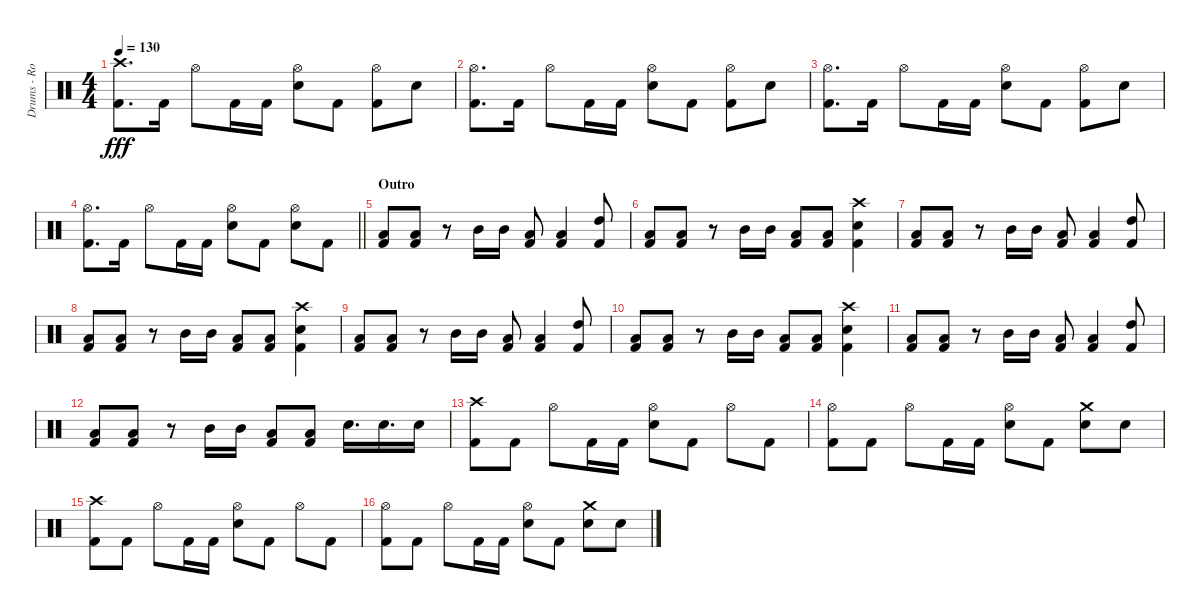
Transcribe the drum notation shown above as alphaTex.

\track ("Drums - Rob Bourdon" "Drums - Ro") {instrument percussion}
\staff {score}
\articulation defaults
\ts (4 4)
\tempo 130
\clef neutral
\ks c
("Crash high (hit)" "Kick (hit) 2").8{d dy fff} "Kick (hit) 2".16 "Hi-Hat (open)".8 "Kick (hit) 2".16 "Kick (hit) 2".16 ("Hi-Hat (open)" "Snare (hit) 2").8 "Kick (hit) 2".8 ("Hi-Hat (open)" "Kick (hit) 2").8 "Snare (hit) 2".8 |
("Hi-Hat (open)" "Kick (hit) 2").8{d} "Kick (hit) 2".16 "Hi-Hat (open)".8 "Kick (hit) 2".16 "Kick (hit) 2".16 ("Hi-Hat (open)" "Snare (hit) 2").8 "Kick (hit) 2".8 ("Hi-Hat (open)" "Kick (hit) 2").8 "Snare (hit) 2".8 |
("Hi-Hat (open)" "Kick (hit) 2").8{d} "Kick (hit) 2".16 "Hi-Hat (open)".8 "Kick (hit) 2".16 "Kick (hit) 2".16 ("Hi-Hat (open)" "Snare (hit) 2").8 "Kick (hit) 2".8 ("Hi-Hat (open)" "Kick (hit) 2").8 "Snare (hit) 2".8 |
\barLineRight lightlight
("Hi-Hat (open)" "Kick (hit) 2").8{d} "Kick (hit) 2".16 "Hi-Hat (open)".8 "Kick (hit) 2".16 "Kick (hit) 2".16 ("Hi-Hat (open)" "Snare (hit) 2").8 "Kick (hit) 2".8 ("Hi-Hat (open)" "Snare (hit) 2").8 "Kick (hit) 2".8 |
\section ("" "Outro")
("Low Tom (hit)" "Kick (hit) 2").8 ("Low Tom (hit)" "Kick (hit) 2").8 r.8 "Mid Tom (hit)".16 "Mid Tom (hit)".16 ("Low Tom (hit)" "Kick (hit) 2").8 ("Low Tom (hit)" "Kick (hit) 2").4 ("High Tom (hit)" "Kick (hit) 2").8 |
("Low Tom (hit)" "Kick (hit) 2").8 ("Low Tom (hit)" "Kick (hit) 2").8 r.8 "Mid Tom (hit)".16 "Mid Tom (hit)".16 ("Low Tom (hit)" "Kick (hit) 2").8 ("Low Tom (hit)" "Kick (hit) 2").8 ("Crash high (hit)" "Snare (hit) 2" "Kick (hit) 2").4 |
("Low Tom (hit)" "Kick (hit) 2").8 ("Low Tom (hit)" "Kick (hit) 2").8 r.8 "Mid Tom (hit)".16 "Mid Tom (hit)".16 ("Low Tom (hit)" "Kick (hit) 2").8 ("Low Tom (hit)" "Kick (hit) 2").4 ("High Tom (hit)" "Kick (hit) 2").8 |
("Low Tom (hit)" "Kick (hit) 2").8 ("Low Tom (hit)" "Kick (hit) 2").8 r.8 "Mid Tom (hit)".16 "Mid Tom (hit)".16 ("Low Tom (hit)" "Kick (hit) 2").8 ("Low Tom (hit)" "Kick (hit) 2").8 ("Crash high (hit)" "Snare (hit) 2" "Kick (hit) 2").4 |
("Low Tom (hit)" "Kick (hit) 2").8 ("Low Tom (hit)" "Kick (hit) 2").8 r.8 "Mid Tom (hit)".16 "Mid Tom (hit)".16 ("Low Tom (hit)" "Kick (hit) 2").8 ("Low Tom (hit)" "Kick (hit) 2").4 ("High Tom (hit)" "Kick (hit) 2").8 |
("Low Tom (hit)" "Kick (hit) 2").8 ("Low Tom (hit)" "Kick (hit) 2").8 r.8 "Mid Tom (hit)".16 "Mid Tom (hit)".16 ("Low Tom (hit)" "Kick (hit) 2").8 ("Low Tom (hit)" "Kick (hit) 2").8 ("Crash high (hit)" "Snare (hit) 2" "Kick (hit) 2").4 |
("Low Tom (hit)" "Kick (hit) 2").8 ("Low Tom (hit)" "Kick (hit) 2").8 r.8 "Mid Tom (hit)".16 "Mid Tom (hit)".16 ("Low Tom (hit)" "Kick (hit) 2").8 ("Low Tom (hit)" "Kick (hit) 2").4 ("High Tom (hit)" "Kick (hit) 2").8 |
("Low Tom (hit)" "Kick (hit) 2").8 ("Low Tom (hit)" "Kick (hit) 2").8 r.8 "Mid Tom (hit)".16 "Mid Tom (hit)".16 ("Low Tom (hit)" "Kick (hit) 2").8 ("Low Tom (hit)" "Kick (hit) 2").8 "Snare (hit) 2".16{d} "Snare (hit) 2".16{d} "Snare (hit) 2".16 |
("Crash high (hit)" "Kick (hit) 2").8 "Kick (hit) 2".8 "Hi-Hat (open)".8 "Kick (hit) 2".16 "Kick (hit) 2".16 ("Hi-Hat (open)" "Snare (hit) 2").8 "Kick (hit) 2".8 "Hi-Hat (open)".8 "Kick (hit) 2".8 |
("Hi-Hat (open)" "Kick (hit) 2").8 "Kick (hit) 2".8 "Hi-Hat (open)".8 "Kick (hit) 2".16 "Kick (hit) 2".16 ("Hi-Hat (open)" "Snare (hit) 2").8 "Kick (hit) 2".8 ("Crash medium (hit)" "Snare (hit) 2").8 "Snare (hit) 2".8 |
("Crash high (hit)" "Kick (hit) 2").8 "Kick (hit) 2".8 "Hi-Hat (open)".8 "Kick (hit) 2".16 "Kick (hit) 2".16 ("Hi-Hat (open)" "Snare (hit) 2").8 "Kick (hit) 2".8 "Hi-Hat (open)".8 "Kick (hit) 2".8 |
("Hi-Hat (open)" "Kick (hit) 2").8 "Kick (hit) 2".8 "Hi-Hat (open)".8 "Kick (hit) 2".16 "Kick (hit) 2".16 ("Hi-Hat (open)" "Snare (hit) 2").8 "Kick (hit) 2".8 ("Crash medium (hit)" "Snare (hit) 2").8 "Snare (hit) 2".8
